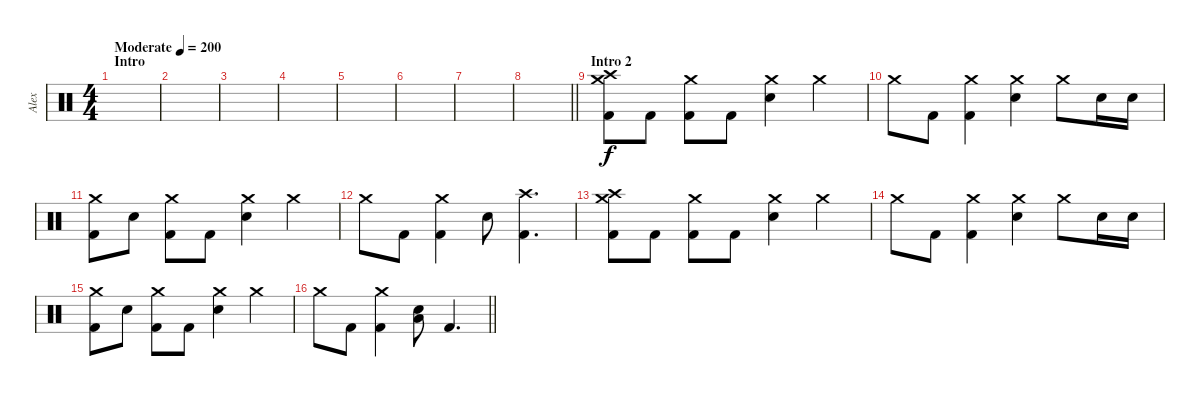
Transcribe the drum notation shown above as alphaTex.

\track ("Alex" "Alex") {instrument percussion}
\staff {score}
\articulation defaults
\ts (4 4)
\section ("" "Intro")
\tempo (200 "Moderate")
\clef neutral
\ks c
|
|
|
|
|
|
|
\barLineRight lightlight
|
\section ("" "Intro 2")
("Crash medium (hit)" "Crash high (hit)" "Kick (hit) 2").8 "Kick (hit) 2".8 ("Crash medium (hit)" "Kick (hit) 2").8 "Kick (hit) 2".8 ("Crash medium (hit)" "Electric Snare (hit)").4 "Crash medium (hit)".4 |
"Crash medium (hit)".8 "Kick (hit) 2".8 ("Crash medium (hit)" "Kick (hit) 2").4 ("Crash medium (hit)" "Electric Snare (hit)").4 "Crash medium (hit)".8 "Electric Snare (hit)".16 "Electric Snare (hit)".16 |
("Crash medium (hit)" "Kick (hit) 2").8 "Electric Snare (hit)".8 ("Crash medium (hit)" "Kick (hit) 2").8 "Kick (hit) 2".8 ("Crash medium (hit)" "Electric Snare (hit)").4 "Crash medium (hit)".4 |
"Crash medium (hit)".8 "Kick (hit) 2".8 ("Crash medium (hit)" "Kick (hit) 2").4 "Electric Snare (hit)".8 ("Crash high (hit)" "Kick (hit) 2").4{d} |
("Crash medium (hit)" "Crash high (hit)" "Kick (hit) 2").8 "Kick (hit) 2".8 ("Crash medium (hit)" "Kick (hit) 2").8 "Kick (hit) 2".8 ("Crash medium (hit)" "Electric Snare (hit)").4 "Crash medium (hit)".4 |
"Crash medium (hit)".8 "Kick (hit) 2".8 ("Crash medium (hit)" "Kick (hit) 2").4 ("Crash medium (hit)" "Electric Snare (hit)").4 "Crash medium (hit)".8 "Electric Snare (hit)".16 "Electric Snare (hit)".16 |
("Crash medium (hit)" "Kick (hit) 2").8 "Electric Snare (hit)".8 ("Crash medium (hit)" "Kick (hit) 2").8 "Kick (hit) 2".8 ("Crash medium (hit)" "Electric Snare (hit)").4 "Crash medium (hit)".4 |
\barLineRight lightlight "Crash medium (hit)".8 "Kick (hit) 2".8
("Crash medium (hit)" "Kick (hit) 2").4 ("Low Floor Tom (hit)" "Electric Snare (hit)").8 "Kick (hit) 2".4{d}
